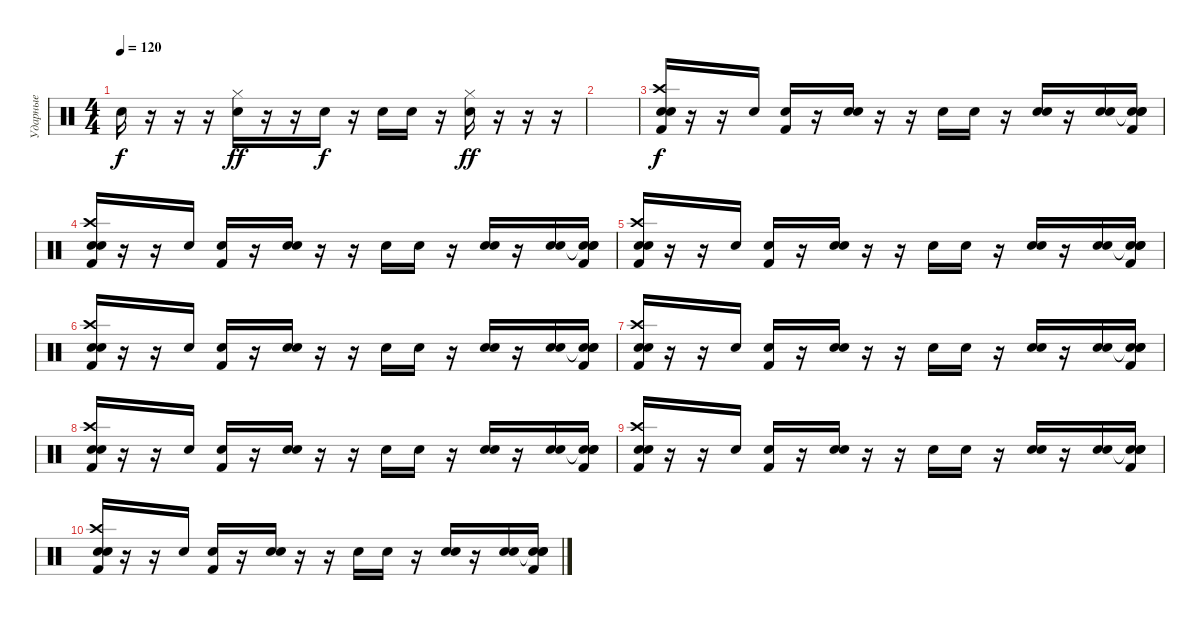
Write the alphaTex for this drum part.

\track ("Ударные" "Ударные") {instrument percussion}
\staff {score}
\articulation defaults
\ts (4 4)
\tempo 120
\clef neutral
\ks c "Electric Snare (hit)".16{dy f}
r.16 r.16 r.16 ("Hi-Hat (closed)" "Snare (hit) 2").16{dy ff} r.16 r.16 "Electric Snare (hit)".16{dy f} r.16 "Electric Snare (hit)".16 "Electric Snare (hit)".16 r.16 ("Hi-Hat (closed)" "Snare (hit) 2").16{dy ff} r.16 r.16 r.16 |
|
("Crash high (hit)" "Electric Snare (hit)" "Electric Snare (hit)" "Kick (hit) 2").16{dy f} r.16 r.16 "Electric Snare (hit)".16 ("Electric Snare (hit)" "Kick (hit) 2").16 r.16 ("Electric Snare (hit)" "Electric Snare (hit)").16 r.16 r.16 "Electric Snare (hit)".16 "Electric Snare (hit)".16 r.16 ("Electric Snare (hit)" "Snare (hit) 2").16 r.16 ("Electric Snare (hit)" "Electric Snare (hit)").16 ("Snare (hit)"{t} "Electric Snare (hit)" "Electric Snare (hit)" "Kick (hit) 2").16 |
("Crash high (hit)" "Electric Snare (hit)" "Electric Snare (hit)" "Kick (hit) 2").16 r.16 r.16 "Electric Snare (hit)".16 ("Electric Snare (hit)" "Kick (hit) 2").16 r.16 ("Electric Snare (hit)" "Electric Snare (hit)").16 r.16 r.16 "Electric Snare (hit)".16 "Electric Snare (hit)".16 r.16 ("Electric Snare (hit)" "Snare (hit) 2").16 r.16 ("Electric Snare (hit)" "Electric Snare (hit)").16 ("Snare (hit)"{t} "Electric Snare (hit)" "Electric Snare (hit)" "Kick (hit) 2").16 |
("Crash high (hit)" "Electric Snare (hit)" "Electric Snare (hit)" "Kick (hit) 2").16 r.16 r.16 "Electric Snare (hit)".16 ("Electric Snare (hit)" "Kick (hit) 2").16 r.16 ("Electric Snare (hit)" "Electric Snare (hit)").16 r.16 r.16 "Electric Snare (hit)".16 "Electric Snare (hit)".16 r.16 ("Electric Snare (hit)" "Snare (hit) 2").16 r.16 ("Electric Snare (hit)" "Electric Snare (hit)").16 ("Snare (hit)"{t} "Electric Snare (hit)" "Electric Snare (hit)" "Kick (hit) 2").16 |
("Crash high (hit)" "Electric Snare (hit)" "Electric Snare (hit)" "Kick (hit) 2").16 r.16 r.16 "Electric Snare (hit)".16 ("Electric Snare (hit)" "Kick (hit) 2").16 r.16 ("Electric Snare (hit)" "Electric Snare (hit)").16 r.16 r.16 "Electric Snare (hit)".16 "Electric Snare (hit)".16 r.16 ("Electric Snare (hit)" "Snare (hit) 2").16 r.16 ("Electric Snare (hit)" "Electric Snare (hit)").16 ("Snare (hit)"{t} "Electric Snare (hit)" "Electric Snare (hit)" "Kick (hit) 2").16 |
("Crash high (hit)" "Electric Snare (hit)" "Electric Snare (hit)" "Kick (hit) 2").16 r.16 r.16 "Electric Snare (hit)".16 ("Electric Snare (hit)" "Kick (hit) 2").16 r.16 ("Electric Snare (hit)" "Electric Snare (hit)").16 r.16 r.16 "Electric Snare (hit)".16 "Electric Snare (hit)".16 r.16 ("Electric Snare (hit)" "Snare (hit) 2").16 r.16 ("Electric Snare (hit)" "Electric Snare (hit)").16 ("Snare (hit)"{t} "Electric Snare (hit)" "Electric Snare (hit)" "Kick (hit) 2").16 |
("Crash high (hit)" "Electric Snare (hit)" "Electric Snare (hit)" "Kick (hit) 2").16 r.16 r.16 "Electric Snare (hit)".16 ("Electric Snare (hit)" "Kick (hit) 2").16 r.16 ("Electric Snare (hit)" "Electric Snare (hit)").16 r.16 r.16 "Electric Snare (hit)".16 "Electric Snare (hit)".16 r.16 ("Electric Snare (hit)" "Snare (hit) 2").16 r.16 ("Electric Snare (hit)" "Electric Snare (hit)").16 ("Snare (hit)"{t} "Electric Snare (hit)" "Electric Snare (hit)" "Kick (hit) 2").16 |
("Crash high (hit)" "Electric Snare (hit)" "Electric Snare (hit)" "Kick (hit) 2").16 r.16 r.16 "Electric Snare (hit)".16 ("Electric Snare (hit)" "Kick (hit) 2").16 r.16 ("Electric Snare (hit)" "Electric Snare (hit)").16 r.16 r.16 "Electric Snare (hit)".16 "Electric Snare (hit)".16 r.16 ("Electric Snare (hit)" "Snare (hit) 2").16 r.16 ("Electric Snare (hit)" "Electric Snare (hit)").16 ("Snare (hit)"{t} "Electric Snare (hit)" "Electric Snare (hit)" "Kick (hit) 2").16 |
("Crash high (hit)" "Electric Snare (hit)" "Electric Snare (hit)" "Kick (hit) 2").16 r.16 r.16 "Electric Snare (hit)".16 ("Electric Snare (hit)" "Kick (hit) 2").16 r.16 ("Electric Snare (hit)" "Electric Snare (hit)").16 r.16 r.16 "Electric Snare (hit)".16 "Electric Snare (hit)".16 r.16 ("Electric Snare (hit)" "Snare (hit) 2").16 r.16 ("Electric Snare (hit)" "Electric Snare (hit)").16 ("Snare (hit)"{t} "Electric Snare (hit)" "Electric Snare (hit)" "Kick (hit) 2").16
